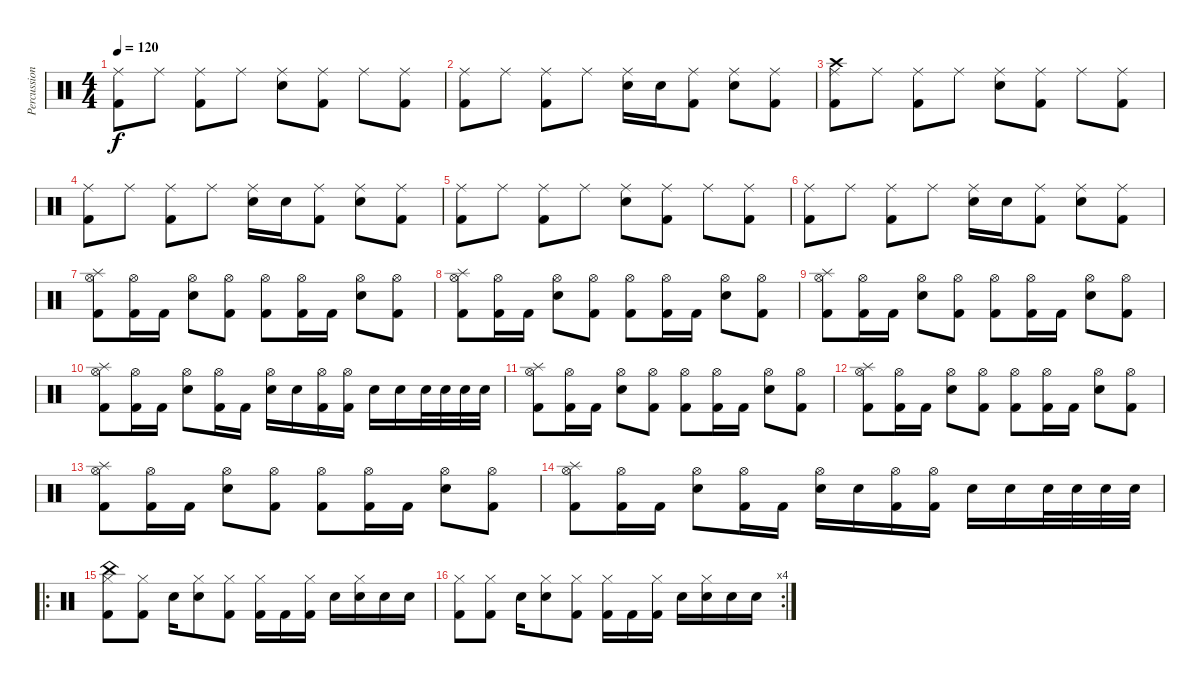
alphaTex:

\track ("Percussion" "Percussion") {instrument percussion}
\staff {score}
\articulation defaults
\ts (4 4)
\tempo 120
\clef neutral
\ks c
("Kick (hit) 2" "Ride (middle)").8{dy f} "Ride (middle)".8 ("Kick (hit) 2" "Ride (middle)").8 "Ride (middle)".8 ("Snare (hit) 2" "Ride (middle)").8 ("Kick (hit) 2" "Ride (middle)").8 "Ride (middle)".8 ("Kick (hit) 2" "Ride (middle)").8 |
("Kick (hit) 2" "Ride (middle)").8 "Ride (middle)".8 ("Kick (hit) 2" "Ride (middle)").8 "Ride (middle)".8 ("Snare (hit) 2" "Ride (middle)").16 "Snare (hit) 2".16 ("Kick (hit) 2" "Ride (middle)").8 ("Snare (hit) 2" "Ride (middle)").8 ("Kick (hit) 2" "Ride (middle)").8 |
("Kick (hit) 2" "Ride (middle)" "Crash high (hit)").8 "Ride (middle)".8 ("Kick (hit) 2" "Ride (middle)").8 "Ride (middle)".8 ("Snare (hit) 2" "Ride (middle)").8 ("Kick (hit) 2" "Ride (middle)").8 "Ride (middle)".8 ("Kick (hit) 2" "Ride (middle)").8 |
("Kick (hit) 2" "Ride (middle)").8 "Ride (middle)".8 ("Kick (hit) 2" "Ride (middle)").8 "Ride (middle)".8 ("Snare (hit) 2" "Ride (middle)").16 "Snare (hit) 2".16 ("Kick (hit) 2" "Ride (middle)").8 ("Snare (hit) 2" "Ride (middle)").8 ("Kick (hit) 2" "Ride (middle)").8 |
("Kick (hit) 2" "Ride (middle)").8 "Ride (middle)".8 ("Kick (hit) 2" "Ride (middle)").8 "Ride (middle)".8 ("Snare (hit) 2" "Ride (middle)").8 ("Kick (hit) 2" "Ride (middle)").8 "Ride (middle)".8 ("Kick (hit) 2" "Ride (middle)").8 |
("Kick (hit) 2" "Ride (middle)").8 "Ride (middle)".8 ("Kick (hit) 2" "Ride (middle)").8 "Ride (middle)".8 ("Snare (hit) 2" "Ride (middle)").16 "Snare (hit) 2".16 ("Kick (hit) 2" "Ride (middle)").8 ("Snare (hit) 2" "Ride (middle)").8 ("Kick (hit) 2" "Ride (middle)").8 |
("Splash (hit)" "Kick (hit) 2" "Hi-Hat (open)").8 ("Kick (hit) 2" "Hi-Hat (open)").16 "Kick (hit) 2".16 ("Snare (hit) 2" "Hi-Hat (open)").8 ("Kick (hit) 2" "Hi-Hat (open)").8 ("Kick (hit) 2" "Hi-Hat (open)").8 ("Kick (hit) 2" "Hi-Hat (open)").16 "Kick (hit) 2".16 ("Snare (hit) 2" "Hi-Hat (open)").8 ("Kick (hit) 2" "Hi-Hat (open)").8 |
("Splash (hit)" "Kick (hit) 2" "Hi-Hat (open)").8 ("Kick (hit) 2" "Hi-Hat (open)").16 "Kick (hit) 2".16 ("Snare (hit) 2" "Hi-Hat (open)").8 ("Kick (hit) 2" "Hi-Hat (open)").8 ("Kick (hit) 2" "Hi-Hat (open)").8 ("Kick (hit) 2" "Hi-Hat (open)").16 "Kick (hit) 2".16 ("Snare (hit) 2" "Hi-Hat (open)").8 ("Kick (hit) 2" "Hi-Hat (open)").8 |
("Splash (hit)" "Kick (hit) 2" "Hi-Hat (open)").8 ("Kick (hit) 2" "Hi-Hat (open)").16 "Kick (hit) 2".16 ("Snare (hit) 2" "Hi-Hat (open)").8 ("Kick (hit) 2" "Hi-Hat (open)").8 ("Kick (hit) 2" "Hi-Hat (open)").8 ("Kick (hit) 2" "Hi-Hat (open)").16 "Kick (hit) 2".16 ("Snare (hit) 2" "Hi-Hat (open)").8 ("Kick (hit) 2" "Hi-Hat (open)").8 |
("Splash (hit)" "Kick (hit) 2" "Hi-Hat (open)").8 ("Kick (hit) 2" "Hi-Hat (open)").16 "Kick (hit) 2".16 ("Snare (hit) 2" "Hi-Hat (open)").8 ("Kick (hit) 2" "Hi-Hat (open)").16 "Kick (hit) 2".16 ("Snare (hit) 2" "Hi-Hat (open)").16 "Snare (hit) 2".16 ("Kick (hit) 2" "Hi-Hat (open)").16 ("Kick (hit) 2" "Hi-Hat (open)").16 "Snare (hit) 2".16 "Snare (hit) 2".16 "Snare (hit) 2".32 "Snare (hit) 2".32 "Snare (hit) 2".32 "Snare (hit) 2".32 |
("Splash (hit)" "Kick (hit) 2" "Hi-Hat (open)").8 ("Kick (hit) 2" "Hi-Hat (open)").16 "Kick (hit) 2".16 ("Snare (hit) 2" "Hi-Hat (open)").8 ("Kick (hit) 2" "Hi-Hat (open)").8 ("Kick (hit) 2" "Hi-Hat (open)").8 ("Kick (hit) 2" "Hi-Hat (open)").16 "Kick (hit) 2".16 ("Snare (hit) 2" "Hi-Hat (open)").8 ("Kick (hit) 2" "Hi-Hat (open)").8 |
("Splash (hit)" "Kick (hit) 2" "Hi-Hat (open)").8 ("Kick (hit) 2" "Hi-Hat (open)").16 "Kick (hit) 2".16 ("Snare (hit) 2" "Hi-Hat (open)").8 ("Kick (hit) 2" "Hi-Hat (open)").8 ("Kick (hit) 2" "Hi-Hat (open)").8 ("Kick (hit) 2" "Hi-Hat (open)").16 "Kick (hit) 2".16 ("Snare (hit) 2" "Hi-Hat (open)").8 ("Kick (hit) 2" "Hi-Hat (open)").8 |
("Splash (hit)" "Kick (hit) 2" "Hi-Hat (open)").8 ("Kick (hit) 2" "Hi-Hat (open)").16 "Kick (hit) 2".16 ("Snare (hit) 2" "Hi-Hat (open)").8 ("Kick (hit) 2" "Hi-Hat (open)").8 ("Kick (hit) 2" "Hi-Hat (open)").8 ("Kick (hit) 2" "Hi-Hat (open)").16 "Kick (hit) 2".16 ("Snare (hit) 2" "Hi-Hat (open)").8 ("Kick (hit) 2" "Hi-Hat (open)").8 |
("Splash (hit)" "Kick (hit) 2" "Hi-Hat (open)").8 ("Kick (hit) 2" "Hi-Hat (open)").16 "Kick (hit) 2".16 ("Snare (hit) 2" "Hi-Hat (open)").8 ("Kick (hit) 2" "Hi-Hat (open)").16 "Kick (hit) 2".16 ("Snare (hit) 2" "Hi-Hat (open)").16 "Snare (hit) 2".16 ("Kick (hit) 2" "Hi-Hat (open)").16 ("Kick (hit) 2" "Hi-Hat (open)").16 "Snare (hit) 2".16 "Snare (hit) 2".16 "Snare (hit) 2".32 "Snare (hit) 2".32 "Snare (hit) 2".32 "Snare (hit) 2".32 |
\ro
("Kick (hit) 2" "Hi-Hat (closed)" "China (hit)").8 ("Kick (hit) 2" "Hi-Hat (closed)").8 "Snare (hit) 2".16 ("Snare (hit) 2" "Hi-Hat (closed)").8 ("Kick (hit) 2" "Hi-Hat (closed)").8 ("Kick (hit) 2" "Hi-Hat (closed)").16 "Kick (hit) 2".16 ("Kick (hit) 2" "Hi-Hat (closed)").16 "Snare (hit) 2".16 ("Snare (hit) 2" "Hi-Hat (closed)").16 "Snare (hit) 2".16 "Snare (hit) 2".16 |
\rc 4
("Kick (hit) 2" "Hi-Hat (closed)").8 ("Kick (hit) 2" "Hi-Hat (closed)").8 "Snare (hit) 2".16 ("Snare (hit) 2" "Hi-Hat (closed)").8 ("Kick (hit) 2" "Hi-Hat (closed)").8 ("Kick (hit) 2" "Hi-Hat (closed)").16 "Kick (hit) 2".16 ("Kick (hit) 2" "Hi-Hat (closed)").16 "Snare (hit) 2".16 ("Snare (hit) 2" "Hi-Hat (closed)").16 "Snare (hit) 2".16 "Snare (hit) 2".16
